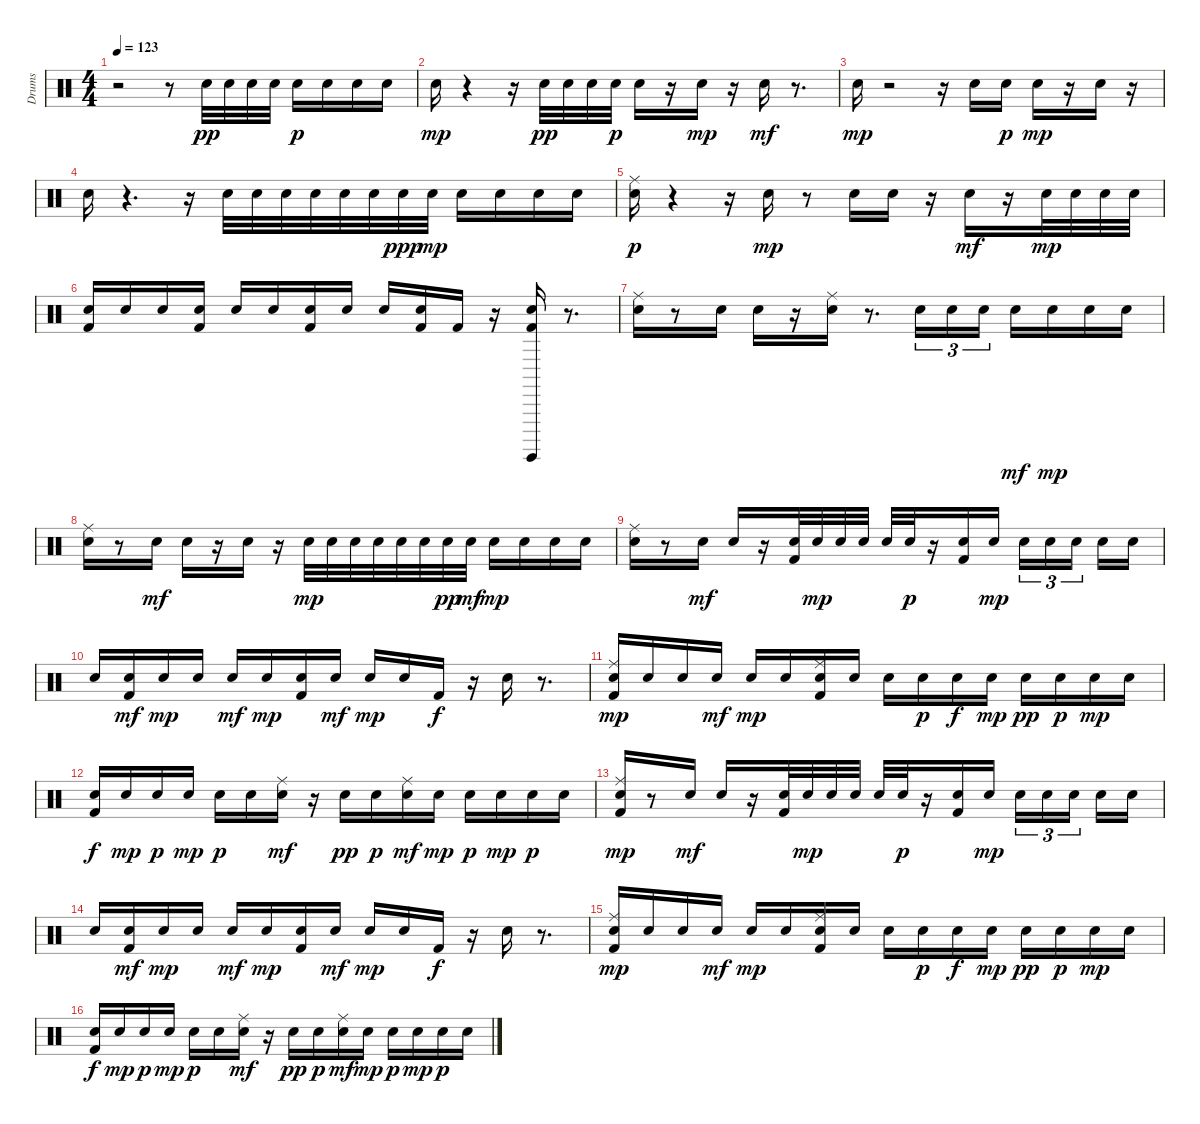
\track ("Drums" "Drums") {instrument percussion}
\staff {score}
\articulation defaults
\ts (4 4)
\tempo 123
\clef neutral
\ks c
r.2{dy pp} r.8 "Electric Snare (hit)".32 "Electric Snare (hit)".32 "Electric Snare (hit)".32 "Electric Snare (hit)".32 "Electric Snare (hit)".16{dy p} "Electric Snare (hit)".16 "Electric Snare (hit)".16 "Electric Snare (hit)".16 |
"Electric Snare (hit)".16{dy mp} r.4 r.16 "Electric Snare (hit)".32{dy pp} "Electric Snare (hit)".32 "Electric Snare (hit)".32 "Electric Snare (hit)".32{dy p} "Electric Snare (hit)".16 r.16 "Electric Snare (hit)".16{dy mp} r.16 "Electric Snare (hit)".16{dy mf} r.8{d} |
"Electric Snare (hit)".16{dy mp} r.2 r.16 "Electric Snare (hit)".16 "Electric Snare (hit)".16{dy p} "Electric Snare (hit)".16{dy mp} r.16 "Electric Snare (hit)".16 r.16 |
"Electric Snare (hit)".16 r.4{d} r.16 "Electric Snare (hit)".32 "Electric Snare (hit)".32 "Electric Snare (hit)".32 "Electric Snare (hit)".32 "Electric Snare (hit)".32 "Electric Snare (hit)".32 "Electric Snare (hit)".32{dy ppp} "Electric Snare (hit)".32{dy mp} "Electric Snare (hit)".16 "Electric Snare (hit)".16 "Electric Snare (hit)".16 "Electric Snare (hit)".16 |
("Electric Snare (hit)" "Ride (middle)").16{dy p} r.4 r.16 "Electric Snare (hit)".16{dy mp} r.8 "Electric Snare (hit)".16 "Electric Snare (hit)".16 r.16 "Electric Snare (hit)".16{dy mf} r.16 "Electric Snare (hit)".32{dy mp} "Electric Snare (hit)".32 "Electric Snare (hit)".32 "Electric Snare (hit)".32 |
("Kick (hit) 2" "Electric Snare (hit)").16 "Electric Snare (hit)".16 "Electric Snare (hit)".16 ("Kick (hit) 2" "Electric Snare (hit)").16 "Electric Snare (hit)".16 "Electric Snare (hit)".16 ("Kick (hit) 2" "Electric Snare (hit)").16 "Electric Snare (hit)".16 "Electric Snare (hit)".16 ("Kick (hit) 2" "Electric Snare (hit)").16 "Kick (hit) 2".16 r.16 ("Kick (hit) 2" "Electric Snare (hit)" "Surdo (hit)").16 r.8{d} |
("Electric Snare (hit)" "Ride (middle)").16 r.8 "Electric Snare (hit)".16 "Electric Snare (hit)".16 r.16 ("Electric Snare (hit)" "Ride (middle)").16 r.8{d} "Electric Snare (hit)".16{tu (3 2)} "Electric Snare (hit)".16{tu (3 2)} "Electric Snare (hit)".16{tu (3 2)} "Electric Snare (hit)".16{dy mf} "Electric Snare (hit)".16{dy mp} "Electric Snare (hit)".16 "Electric Snare (hit)".16 |
("Electric Snare (hit)" "Ride (middle)").16 r.8 "Electric Snare (hit)".16{dy mf} "Electric Snare (hit)".16 r.16 "Electric Snare (hit)".16 r.16 "Electric Snare (hit)".32{dy mp} "Electric Snare (hit)".32 "Electric Snare (hit)".32 "Electric Snare (hit)".32 "Electric Snare (hit)".32 "Electric Snare (hit)".32 "Electric Snare (hit)".32{dy pp} "Electric Snare (hit)".32{dy mf} "Electric Snare (hit)".16{dy mp} "Electric Snare (hit)".16 "Electric Snare (hit)".16 "Electric Snare (hit)".16 |
("Electric Snare (hit)" "Ride (middle)").16 r.8 "Electric Snare (hit)".16{dy mf} "Electric Snare (hit)".16 r.16 ("Kick (hit) 2" "Electric Snare (hit)").32 "Electric Snare (hit)".32{dy mp} "Electric Snare (hit)".32 "Electric Snare (hit)".32 "Electric Snare (hit)".32 "Electric Snare (hit)".32{dy p} r.16 ("Kick (hit) 2" "Electric Snare (hit)").16 "Electric Snare (hit)".16{dy mp} "Electric Snare (hit)".16{tu (3 2)} "Electric Snare (hit)".16{tu (3 2)} "Electric Snare (hit)".16{tu (3 2)} "Electric Snare (hit)".16 "Electric Snare (hit)".16 |
"Electric Snare (hit)".16 ("Kick (hit) 2" "Electric Snare (hit)").16{dy mf} "Electric Snare (hit)".16{dy mp} "Electric Snare (hit)".16 "Electric Snare (hit)".16{dy mf} "Electric Snare (hit)".16{dy mp} ("Kick (hit) 2" "Electric Snare (hit)").16 "Electric Snare (hit)".16{dy mf} "Electric Snare (hit)".16{dy mp} "Electric Snare (hit)".16 "Kick (hit) 2".16{dy f} r.16 "Electric Snare (hit)".16 r.8{d} |
("Kick (hit) 2" "Electric Snare (hit)" "Ride (middle)").16{dy mp} "Electric Snare (hit)".16 "Electric Snare (hit)".16 "Electric Snare (hit)".16{dy mf} "Electric Snare (hit)".16{dy mp} "Electric Snare (hit)".16 ("Kick (hit) 2" "Electric Snare (hit)" "Ride (middle)").16 "Electric Snare (hit)".16 "Electric Snare (hit)".16 "Electric Snare (hit)".16{dy p} "Electric Snare (hit)".16{dy f} "Electric Snare (hit)".16{dy mp} "Electric Snare (hit)".16{dy pp} "Electric Snare (hit)".16{dy p} "Electric Snare (hit)".16{dy mp} "Electric Snare (hit)".16 |
("Kick (hit) 2" "Electric Snare (hit)").16{dy f} "Electric Snare (hit)".16{dy mp} "Electric Snare (hit)".16{dy p} "Electric Snare (hit)".16{dy mp} "Electric Snare (hit)".16{dy p} "Electric Snare (hit)".16 ("Electric Snare (hit)" "Ride (middle)").16{dy mf} r.16 "Electric Snare (hit)".16{dy pp} "Electric Snare (hit)".16{dy p} ("Electric Snare (hit)" "Ride (middle)").16{dy mf} "Electric Snare (hit)".16{dy mp} "Electric Snare (hit)".16{dy p} "Electric Snare (hit)".16{dy mp} "Electric Snare (hit)".16{dy p} "Electric Snare (hit)".16 |
("Kick (hit) 2" "Electric Snare (hit)" "Ride (middle)").16{dy mp} r.8 "Electric Snare (hit)".16{dy mf} "Electric Snare (hit)".16 r.16 ("Kick (hit) 2" "Electric Snare (hit)").32 "Electric Snare (hit)".32{dy mp} "Electric Snare (hit)".32 "Electric Snare (hit)".32 "Electric Snare (hit)".32 "Electric Snare (hit)".32{dy p} r.16 ("Kick (hit) 2" "Electric Snare (hit)").16 "Electric Snare (hit)".16{dy mp} "Electric Snare (hit)".16{tu (3 2)} "Electric Snare (hit)".16{tu (3 2)} "Electric Snare (hit)".16{tu (3 2)} "Electric Snare (hit)".16 "Electric Snare (hit)".16 |
"Electric Snare (hit)".16 ("Kick (hit) 2" "Electric Snare (hit)").16{dy mf} "Electric Snare (hit)".16{dy mp} "Electric Snare (hit)".16 "Electric Snare (hit)".16{dy mf} "Electric Snare (hit)".16{dy mp} ("Kick (hit) 2" "Electric Snare (hit)").16 "Electric Snare (hit)".16{dy mf} "Electric Snare (hit)".16{dy mp} "Electric Snare (hit)".16 "Kick (hit) 2".16{dy f} r.16 "Electric Snare (hit)".16 r.8{d} |
("Kick (hit) 2" "Electric Snare (hit)" "Ride (middle)").16{dy mp} "Electric Snare (hit)".16 "Electric Snare (hit)".16 "Electric Snare (hit)".16{dy mf} "Electric Snare (hit)".16{dy mp} "Electric Snare (hit)".16 ("Kick (hit) 2" "Electric Snare (hit)" "Ride (middle)").16 "Electric Snare (hit)".16 "Electric Snare (hit)".16 "Electric Snare (hit)".16{dy p} "Electric Snare (hit)".16{dy f} "Electric Snare (hit)".16{dy mp} "Electric Snare (hit)".16{dy pp} "Electric Snare (hit)".16{dy p} "Electric Snare (hit)".16{dy mp} "Electric Snare (hit)".16 |
("Kick (hit) 2" "Electric Snare (hit)").16{dy f} "Electric Snare (hit)".16{dy mp} "Electric Snare (hit)".16{dy p} "Electric Snare (hit)".16{dy mp} "Electric Snare (hit)".16{dy p} "Electric Snare (hit)".16 ("Electric Snare (hit)" "Ride (middle)").16{dy mf} r.16 "Electric Snare (hit)".16{dy pp} "Electric Snare (hit)".16{dy p} ("Electric Snare (hit)" "Ride (middle)").16{dy mf} "Electric Snare (hit)".16{dy mp} "Electric Snare (hit)".16{dy p} "Electric Snare (hit)".16{dy mp} "Electric Snare (hit)".16{dy p} "Electric Snare (hit)".16
